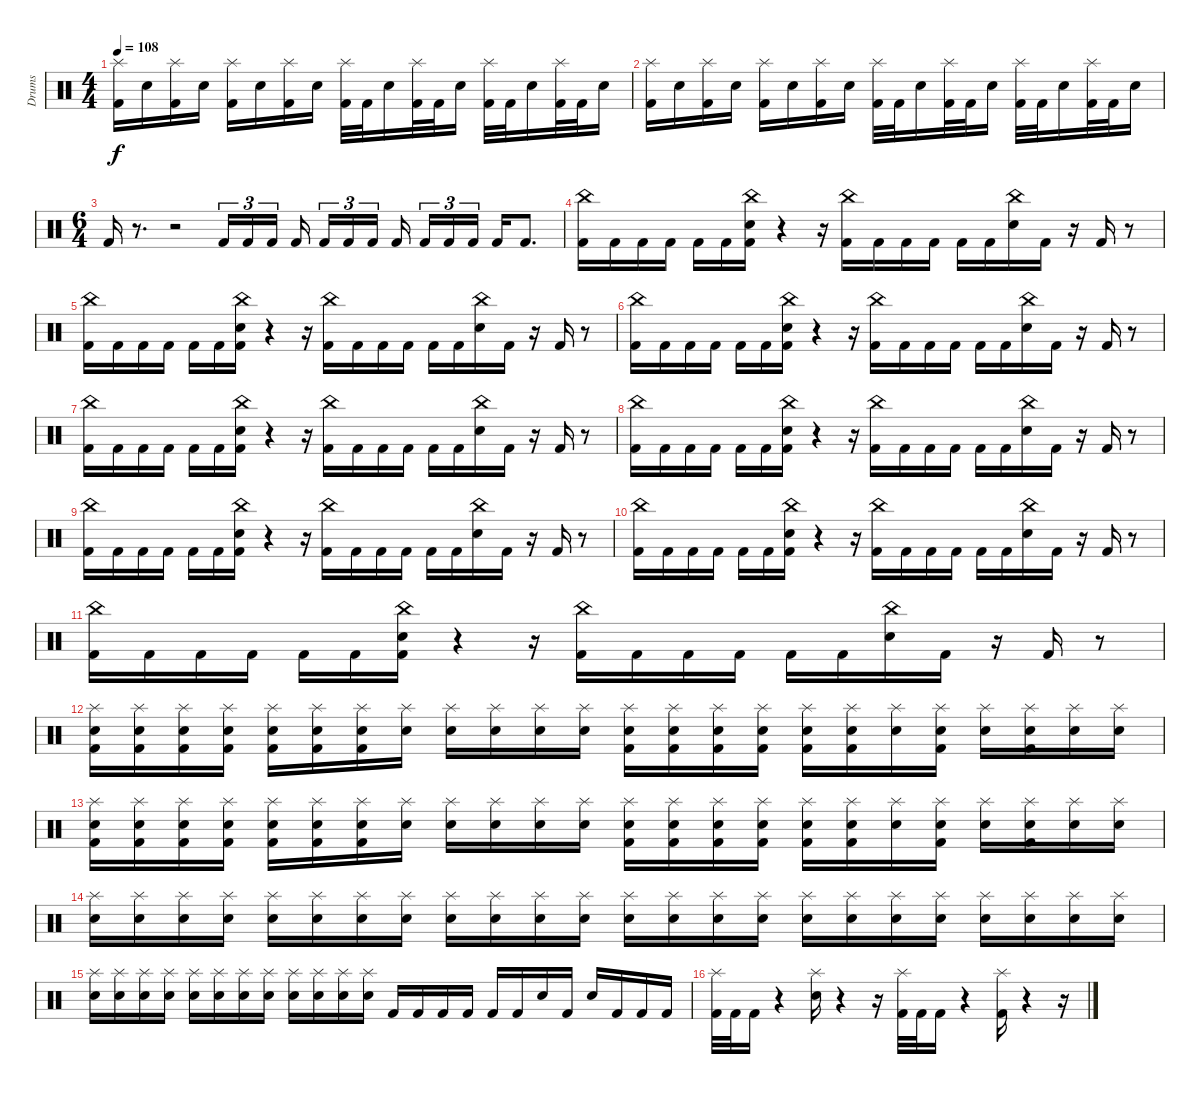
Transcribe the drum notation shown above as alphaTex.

\track ("Drums" "Drums") {instrument percussion}
\staff {score}
\articulation defaults
\ts (4 4)
\tempo 108
\clef neutral
\ks c
("Splash (hit)" "Kick (hit) 2").16{dy f} "Snare (hit) 2".16 ("Splash (hit)" "Kick (hit) 2").16 "Snare (hit) 2".16 ("Splash (hit)" "Kick (hit) 2").16 "Snare (hit) 2".16 ("Splash (hit)" "Kick (hit) 2").16 "Snare (hit) 2".16 ("Splash (hit)" "Kick (hit) 2").32 "Kick (hit) 2".32 "Snare (hit) 2".16 ("Splash (hit)" "Kick (hit) 2").32 "Kick (hit) 2".32 "Snare (hit) 2".16 ("Splash (hit)" "Kick (hit) 2").32 "Kick (hit) 2".32 "Snare (hit) 2".16 ("Splash (hit)" "Kick (hit) 2").32 "Kick (hit) 2".32 "Snare (hit) 2".16 |
("Splash (hit)" "Kick (hit) 2").16 "Snare (hit) 2".16 ("Splash (hit)" "Kick (hit) 2").16 "Snare (hit) 2".16 ("Splash (hit)" "Kick (hit) 2").16 "Snare (hit) 2".16 ("Splash (hit)" "Kick (hit) 2").16 "Snare (hit) 2".16 ("Splash (hit)" "Kick (hit) 2").32 "Kick (hit) 2".32 "Snare (hit) 2".16 ("Splash (hit)" "Kick (hit) 2").32 "Kick (hit) 2".32 "Snare (hit) 2".16 ("Splash (hit)" "Kick (hit) 2").32 "Kick (hit) 2".32 "Snare (hit) 2".16 ("Splash (hit)" "Kick (hit) 2").32 "Kick (hit) 2".32 "Snare (hit) 2".16 |
\ts (6 4)
"Kick (hit) 2".16 r.8{d} r.2 "Kick (hit) 2".16{tu (3 2)} "Kick (hit) 2".16{tu (3 2)} "Kick (hit) 2".16{tu (3 2) beam splitsecondary} "Kick (hit) 2".16{beam splitsecondary} "Kick (hit) 2".16{tu (3 2)} "Kick (hit) 2".16{tu (3 2)} "Kick (hit) 2".16{tu (3 2) beam splitsecondary} "Kick (hit) 2".16{beam splitsecondary} "Kick (hit) 2".16{tu (3 2)} "Kick (hit) 2".16{tu (3 2)} "Kick (hit) 2".16{tu (3 2) beam splitsecondary} "Kick (hit) 2".16 "Kick (hit) 2".8{d} |
("China (hit)" "Kick (hit) 2").16 "Kick (hit) 2".16 "Kick (hit) 2".16 "Kick (hit) 2".16 "Kick (hit) 2".16 "Kick (hit) 2".16 ("China (hit)" "Snare (hit) 2" "Kick (hit) 2").16 r.4 r.16 ("China (hit)" "Kick (hit) 2").16 "Kick (hit) 2".16 "Kick (hit) 2".16 "Kick (hit) 2".16 "Kick (hit) 2".16 "Kick (hit) 2".16 ("China (hit)" "Snare (hit) 2").16 "Kick (hit) 2".16 r.16 "Kick (hit) 2".16 r.8 |
("China (hit)" "Kick (hit) 2").16 "Kick (hit) 2".16 "Kick (hit) 2".16 "Kick (hit) 2".16 "Kick (hit) 2".16 "Kick (hit) 2".16 ("China (hit)" "Snare (hit) 2" "Kick (hit) 2").16 r.4 r.16 ("China (hit)" "Kick (hit) 2").16 "Kick (hit) 2".16 "Kick (hit) 2".16 "Kick (hit) 2".16 "Kick (hit) 2".16 "Kick (hit) 2".16 ("China (hit)" "Snare (hit) 2").16 "Kick (hit) 2".16 r.16 "Kick (hit) 2".16 r.8 |
("China (hit)" "Kick (hit) 2").16 "Kick (hit) 2".16 "Kick (hit) 2".16 "Kick (hit) 2".16 "Kick (hit) 2".16 "Kick (hit) 2".16 ("China (hit)" "Snare (hit) 2" "Kick (hit) 2").16 r.4 r.16 ("China (hit)" "Kick (hit) 2").16 "Kick (hit) 2".16 "Kick (hit) 2".16 "Kick (hit) 2".16 "Kick (hit) 2".16 "Kick (hit) 2".16 ("China (hit)" "Snare (hit) 2").16 "Kick (hit) 2".16 r.16 "Kick (hit) 2".16 r.8 |
("China (hit)" "Kick (hit) 2").16 "Kick (hit) 2".16 "Kick (hit) 2".16 "Kick (hit) 2".16 "Kick (hit) 2".16 "Kick (hit) 2".16 ("China (hit)" "Snare (hit) 2" "Kick (hit) 2").16 r.4 r.16 ("China (hit)" "Kick (hit) 2").16 "Kick (hit) 2".16 "Kick (hit) 2".16 "Kick (hit) 2".16 "Kick (hit) 2".16 "Kick (hit) 2".16 ("China (hit)" "Snare (hit) 2").16 "Kick (hit) 2".16 r.16 "Kick (hit) 2".16 r.8 |
("China (hit)" "Kick (hit) 2").16 "Kick (hit) 2".16 "Kick (hit) 2".16 "Kick (hit) 2".16 "Kick (hit) 2".16 "Kick (hit) 2".16 ("China (hit)" "Snare (hit) 2" "Kick (hit) 2").16 r.4 r.16 ("China (hit)" "Kick (hit) 2").16 "Kick (hit) 2".16 "Kick (hit) 2".16 "Kick (hit) 2".16 "Kick (hit) 2".16 "Kick (hit) 2".16 ("China (hit)" "Snare (hit) 2").16 "Kick (hit) 2".16 r.16 "Kick (hit) 2".16 r.8 |
("China (hit)" "Kick (hit) 2").16 "Kick (hit) 2".16 "Kick (hit) 2".16 "Kick (hit) 2".16 "Kick (hit) 2".16 "Kick (hit) 2".16 ("China (hit)" "Snare (hit) 2" "Kick (hit) 2").16 r.4 r.16 ("China (hit)" "Kick (hit) 2").16 "Kick (hit) 2".16 "Kick (hit) 2".16 "Kick (hit) 2".16 "Kick (hit) 2".16 "Kick (hit) 2".16 ("China (hit)" "Snare (hit) 2").16 "Kick (hit) 2".16 r.16 "Kick (hit) 2".16 r.8 |
("China (hit)" "Kick (hit) 2").16 "Kick (hit) 2".16 "Kick (hit) 2".16 "Kick (hit) 2".16 "Kick (hit) 2".16 "Kick (hit) 2".16 ("China (hit)" "Snare (hit) 2" "Kick (hit) 2").16 r.4 r.16 ("China (hit)" "Kick (hit) 2").16 "Kick (hit) 2".16 "Kick (hit) 2".16 "Kick (hit) 2".16 "Kick (hit) 2".16 "Kick (hit) 2".16 ("China (hit)" "Snare (hit) 2").16 "Kick (hit) 2".16 r.16 "Kick (hit) 2".16 r.8 |
("China (hit)" "Kick (hit) 2").16 "Kick (hit) 2".16 "Kick (hit) 2".16 "Kick (hit) 2".16 "Kick (hit) 2".16 "Kick (hit) 2".16 ("China (hit)" "Snare (hit) 2" "Kick (hit) 2").16 r.4 r.16 ("China (hit)" "Kick (hit) 2").16 "Kick (hit) 2".16 "Kick (hit) 2".16 "Kick (hit) 2".16 "Kick (hit) 2".16 "Kick (hit) 2".16 ("China (hit)" "Snare (hit) 2").16 "Kick (hit) 2".16 r.16 "Kick (hit) 2".16 r.8 |
("Splash (hit)" "Snare (hit) 2" "Kick (hit) 2").16 ("Splash (hit)" "Snare (hit) 2" "Kick (hit) 2").16 ("Splash (hit)" "Snare (hit) 2" "Kick (hit) 2").16 ("Splash (hit)" "Snare (hit) 2" "Kick (hit) 2").16 ("Splash (hit)" "Snare (hit) 2" "Kick (hit) 2").16 ("Splash (hit)" "Snare (hit) 2" "Kick (hit) 2").16 ("Splash (hit)" "Snare (hit) 2" "Kick (hit) 2").16 ("Splash (hit)" "Snare (hit) 2").16 ("Splash (hit)" "Snare (hit) 2").16 ("Splash (hit)" "Snare (hit) 2").16 ("Splash (hit)" "Snare (hit) 2").16 ("Splash (hit)" "Snare (hit) 2").16 ("Splash (hit)" "Snare (hit) 2" "Kick (hit) 2").16 ("Splash (hit)" "Snare (hit) 2" "Kick (hit) 2").16 ("Splash (hit)" "Snare (hit) 2" "Kick (hit) 2").16 ("Splash (hit)" "Snare (hit) 2" "Kick (hit) 2").16 ("Splash (hit)" "Snare (hit) 2" "Kick (hit) 2").16 ("Splash (hit)" "Snare (hit) 2" "Kick (hit) 2").16 ("Splash (hit)" "Snare (hit) 2").16 ("Splash (hit)" "Snare (hit) 2" "Kick (hit) 2").16 ("Splash (hit)" "Snare (hit) 2").16 ("Splash (hit)" "Snare (hit) 2" "Kick (hit) 2").16 ("Splash (hit)" "Snare (hit) 2").16 ("Splash (hit)" "Snare (hit) 2").16 |
("Splash (hit)" "Snare (hit) 2" "Kick (hit) 2").16 ("Splash (hit)" "Snare (hit) 2" "Kick (hit) 2").16 ("Splash (hit)" "Snare (hit) 2" "Kick (hit) 2").16 ("Splash (hit)" "Snare (hit) 2" "Kick (hit) 2").16 ("Splash (hit)" "Snare (hit) 2" "Kick (hit) 2").16 ("Splash (hit)" "Snare (hit) 2" "Kick (hit) 2").16 ("Splash (hit)" "Snare (hit) 2" "Kick (hit) 2").16 ("Splash (hit)" "Snare (hit) 2").16 ("Splash (hit)" "Snare (hit) 2").16 ("Splash (hit)" "Snare (hit) 2").16 ("Splash (hit)" "Snare (hit) 2").16 ("Splash (hit)" "Snare (hit) 2").16 ("Splash (hit)" "Snare (hit) 2" "Kick (hit) 2").16 ("Splash (hit)" "Snare (hit) 2" "Kick (hit) 2").16 ("Splash (hit)" "Snare (hit) 2" "Kick (hit) 2").16 ("Splash (hit)" "Snare (hit) 2" "Kick (hit) 2").16 ("Splash (hit)" "Snare (hit) 2" "Kick (hit) 2").16 ("Splash (hit)" "Snare (hit) 2" "Kick (hit) 2").16 ("Splash (hit)" "Snare (hit) 2").16 ("Splash (hit)" "Snare (hit) 2" "Kick (hit) 2").16 ("Splash (hit)" "Snare (hit) 2").16 ("Splash (hit)" "Snare (hit) 2" "Kick (hit) 2").16 ("Splash (hit)" "Snare (hit) 2").16 ("Splash (hit)" "Snare (hit) 2").16 |
("Splash (hit)" "Snare (hit) 2").16 ("Splash (hit)" "Snare (hit) 2").16 ("Splash (hit)" "Snare (hit) 2").16 ("Splash (hit)" "Snare (hit) 2").16 ("Splash (hit)" "Snare (hit) 2").16 ("Splash (hit)" "Snare (hit) 2").16 ("Splash (hit)" "Snare (hit) 2").16 ("Splash (hit)" "Snare (hit) 2").16 ("Splash (hit)" "Snare (hit) 2").16 ("Splash (hit)" "Snare (hit) 2").16 ("Splash (hit)" "Snare (hit) 2").16 ("Splash (hit)" "Snare (hit) 2").16 ("Splash (hit)" "Snare (hit) 2").16 ("Splash (hit)" "Snare (hit) 2").16 ("Splash (hit)" "Snare (hit) 2").16 ("Splash (hit)" "Snare (hit) 2").16 ("Splash (hit)" "Snare (hit) 2").16 ("Splash (hit)" "Snare (hit) 2").16 ("Splash (hit)" "Snare (hit) 2").16 ("Splash (hit)" "Snare (hit) 2").16 ("Splash (hit)" "Snare (hit) 2").16 ("Splash (hit)" "Snare (hit) 2").16 ("Splash (hit)" "Snare (hit) 2").16 ("Splash (hit)" "Snare (hit) 2").16 |
("Splash (hit)" "Snare (hit) 2").16 ("Splash (hit)" "Snare (hit) 2").16 ("Splash (hit)" "Snare (hit) 2").16 ("Splash (hit)" "Snare (hit) 2").16 ("Splash (hit)" "Snare (hit) 2").16 ("Splash (hit)" "Snare (hit) 2").16 ("Splash (hit)" "Snare (hit) 2").16 ("Splash (hit)" "Snare (hit) 2").16 ("Splash (hit)" "Snare (hit) 2").16 ("Splash (hit)" "Snare (hit) 2").16 ("Splash (hit)" "Snare (hit) 2").16 ("Splash (hit)" "Snare (hit) 2").16 "Kick (hit) 2".16 "Kick (hit) 2".16 "Kick (hit) 2".16 "Kick (hit) 2".16 "Kick (hit) 2".16 "Kick (hit) 2".16 "Snare (hit) 2".16 "Kick (hit) 2".16 "Snare (hit) 2".16 "Kick (hit) 2".16 "Kick (hit) 2".16 "Kick (hit) 2".16 |
("Splash (hit)" "Kick (hit) 2").32 "Kick (hit) 2".32 "Kick (hit) 2".16 r.4 ("Splash (hit)" "Snare (hit) 2").16 r.4 r.16 ("Splash (hit)" "Kick (hit) 2").32 "Kick (hit) 2".32 "Kick (hit) 2".16 r.4 ("Splash (hit)" "Kick (hit) 2").16 r.4 r.16
